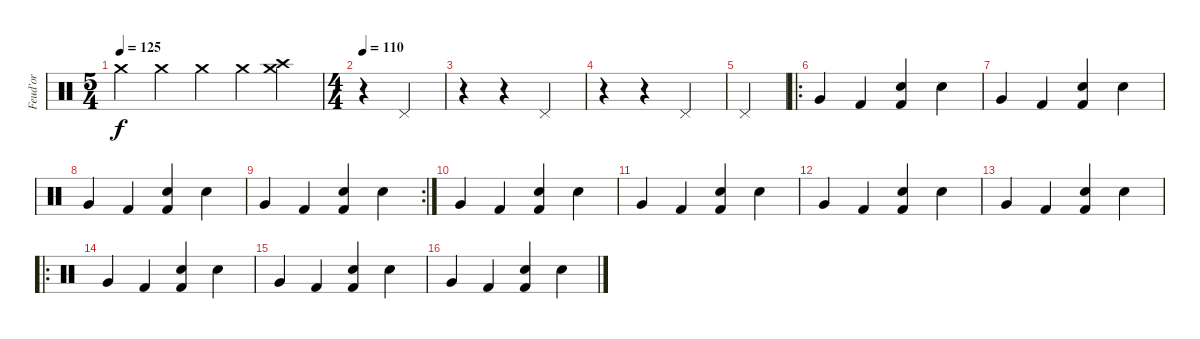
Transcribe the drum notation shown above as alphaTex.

\track ("Feud'or" "Feud'or") {instrument percussion}
\staff {score}
\articulation defaults
\ts (5 4)
\tempo 125
\clef neutral
\ks c "Crash medium (hit)".4{dy f} "Crash medium (hit)".4 "Crash medium (hit)".4 "Crash medium (hit)".4
("Crash high (hit)" "Crash medium (hit)").4 |
\ts (4 4)
\tempo 110
r.4 "Pedal Hi-Hat (hit)".4 |
r.4 r.4 "Pedal Hi-Hat (hit)".4 |
r.4 r.4 "Pedal Hi-Hat (hit)".4 |
"Pedal Hi-Hat (hit)".4 |
\ro "Very Low Tom (hit)".4 "Kick (hit) 2".4
("Kick (hit) 2" "Electric Snare (hit)").4 "Snare (hit) 2".4 |
"Very Low Tom (hit)".4 "Kick (hit) 2".4 ("Kick (hit) 2" "Electric Snare (hit)").4 "Snare (hit) 2".4 |
"Very Low Tom (hit)".4 "Kick (hit) 2".4 ("Kick (hit) 2" "Electric Snare (hit)").4 "Snare (hit) 2".4 |
\rc 2 "Very Low Tom (hit)".4 "Kick (hit) 2".4
("Kick (hit) 2" "Electric Snare (hit)").4 "Snare (hit) 2".4 |
"Very Low Tom (hit)".4 "Kick (hit) 2".4 ("Kick (hit) 2" "Electric Snare (hit)").4 "Snare (hit) 2".4 |
"Very Low Tom (hit)".4 "Kick (hit) 2".4 ("Kick (hit) 2" "Electric Snare (hit)").4 "Snare (hit) 2".4 |
"Very Low Tom (hit)".4 "Kick (hit) 2".4 ("Kick (hit) 2" "Electric Snare (hit)").4 "Snare (hit) 2".4 |
"Very Low Tom (hit)".4 "Kick (hit) 2".4 ("Kick (hit) 2" "Electric Snare (hit)").4 "Snare (hit) 2".4 |
\ro "Very Low Tom (hit)".4 "Kick (hit) 2".4
("Kick (hit) 2" "Electric Snare (hit)").4 "Snare (hit) 2".4 |
"Very Low Tom (hit)".4 "Kick (hit) 2".4 ("Kick (hit) 2" "Electric Snare (hit)").4 "Snare (hit) 2".4 |
"Very Low Tom (hit)".4 "Kick (hit) 2".4 ("Kick (hit) 2" "Electric Snare (hit)").4 "Snare (hit) 2".4
